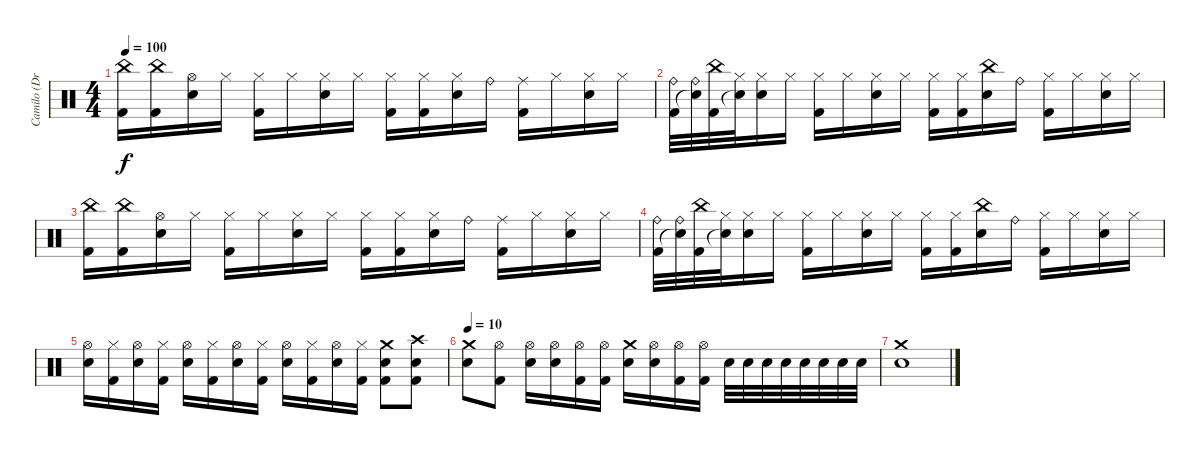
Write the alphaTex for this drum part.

\track ("Camilo (Drums)" "Camilo (Dr") {instrument percussion}
\staff {score}
\articulation defaults
\ts (4 4)
\tempo 100
\clef neutral
\ks c
("China (hit)" "Kick (hit) 2").16{dy f} ("China (hit)" "Kick (hit) 2").16 ("Hi-Hat (open)" "Electric Snare (hit)").16 "Hi-Hat (closed)".16 ("Hi-Hat (closed)" "Kick (hit) 2").16 "Hi-Hat (closed)".16 ("Hi-Hat (closed)" "Electric Snare (hit)").16 "Hi-Hat (closed)".16 ("Hi-Hat (closed)" "Kick (hit) 2").16 ("Hi-Hat (closed)" "Kick (hit) 2").16 ("Hi-Hat (closed)" "Electric Snare (hit)").16 "Ride (bell)".16 ("Ride (middle)" "Kick (hit) 2").16 "Hi-Hat (closed)".16 ("Hi-Hat (closed)" "Electric Snare (hit)").16 "Hi-Hat (closed)".16 |
("Ride (bell)" "Kick (hit) 2").32 ("Ride (bell)" "Snare (hit)"{t}).32 ("China (hit)" "Kick (hit) 2").32 ("Hi-Hat (closed)" "Snare (hit)"{t}).32 ("Hi-Hat (closed)" "Electric Snare (hit)").16 "Hi-Hat (closed)".16 ("Hi-Hat (closed)" "Kick (hit) 2").16 "Hi-Hat (closed)".16 ("Hi-Hat (closed)" "Electric Snare (hit)").16 "Hi-Hat (closed)".16 ("Hi-Hat (closed)" "Kick (hit) 2").16 ("Hi-Hat (closed)" "Kick (hit) 2").16 ("China (hit)" "Electric Snare (hit)").16 "Ride (bell)".16 ("Hi-Hat (closed)" "Kick (hit) 2").16 "Hi-Hat (closed)".16 ("Hi-Hat (closed)" "Electric Snare (hit)").16 "Hi-Hat (closed)".16 |
("China (hit)" "Kick (hit) 2").16 ("China (hit)" "Kick (hit) 2").16 ("Hi-Hat (open)" "Electric Snare (hit)").16 "Hi-Hat (closed)".16 ("Hi-Hat (closed)" "Kick (hit) 2").16 "Hi-Hat (closed)".16 ("Hi-Hat (closed)" "Electric Snare (hit)").16 "Hi-Hat (closed)".16 ("Hi-Hat (closed)" "Kick (hit) 2").16 ("Hi-Hat (closed)" "Kick (hit) 2").16 ("Hi-Hat (closed)" "Electric Snare (hit)").16 "Ride (bell)".16 ("Ride (middle)" "Kick (hit) 2").16 "Hi-Hat (closed)".16 ("Hi-Hat (closed)" "Electric Snare (hit)").16 "Hi-Hat (closed)".16 |
("Ride (bell)" "Kick (hit) 2").32 ("Ride (bell)" "Snare (hit)"{t}).32 ("China (hit)" "Kick (hit) 2").32 ("Hi-Hat (closed)" "Snare (hit)"{t}).32 ("Hi-Hat (closed)" "Electric Snare (hit)").16 "Hi-Hat (closed)".16 ("Hi-Hat (closed)" "Kick (hit) 2").16 "Hi-Hat (closed)".16 ("Hi-Hat (closed)" "Electric Snare (hit)").16 "Hi-Hat (closed)".16 ("Hi-Hat (closed)" "Kick (hit) 2").16 ("Hi-Hat (closed)" "Kick (hit) 2").16 ("China (hit)" "Electric Snare (hit)").16 "Ride (bell)".16 ("Hi-Hat (closed)" "Kick (hit) 2").16 "Hi-Hat (closed)".16 ("Hi-Hat (closed)" "Electric Snare (hit)").16 "Hi-Hat (closed)".16 |
("Hi-Hat (open)" "Electric Snare (hit)").16 ("Hi-Hat (closed)" "Kick (hit) 2").16 ("Hi-Hat (open)" "Electric Snare (hit)").16 ("Hi-Hat (closed)" "Kick (hit) 2").16 ("Hi-Hat (open)" "Electric Snare (hit)").16 ("Hi-Hat (closed)" "Kick (hit) 2").16 ("Hi-Hat (open)" "Electric Snare (hit)").16 ("Hi-Hat (closed)" "Kick (hit) 2").16 ("Hi-Hat (open)" "Electric Snare (hit)").16 ("Hi-Hat (closed)" "Kick (hit) 2").16 ("Hi-Hat (open)" "Electric Snare (hit)").16 ("Hi-Hat (closed)" "Kick (hit) 2").16 ("Crash medium (hit)" "Electric Snare (hit)" "Kick (hit) 2").8 ("Crash high (hit)" "Electric Snare (hit)" "Kick (hit) 2").8 |
\tempo 10
("Crash medium (hit)" "Electric Snare (hit)").8 ("Hi-Hat (open)" "Kick (hit) 2").8 ("Hi-Hat (open)" "Electric Snare (hit)").16 ("Hi-Hat (open)" "Electric Snare (hit)").16 ("Hi-Hat (open)" "Kick (hit) 2").16 ("Hi-Hat (open)" "Kick (hit) 2").16 ("Crash medium (hit)" "Electric Snare (hit)").16 ("Hi-Hat (open)" "Electric Snare (hit)").16 ("Hi-Hat (open)" "Kick (hit) 2").16 ("Hi-Hat (open)" "Kick (hit) 2").16 "Electric Snare (hit)".32 "Electric Snare (hit)".32 "Electric Snare (hit)".32 "Electric Snare (hit)".32 "Electric Snare (hit)".32 "Electric Snare (hit)".32 "Electric Snare (hit)".32 "Electric Snare (hit)".32 |
("Crash medium (hit)" "Electric Snare (hit)").1
